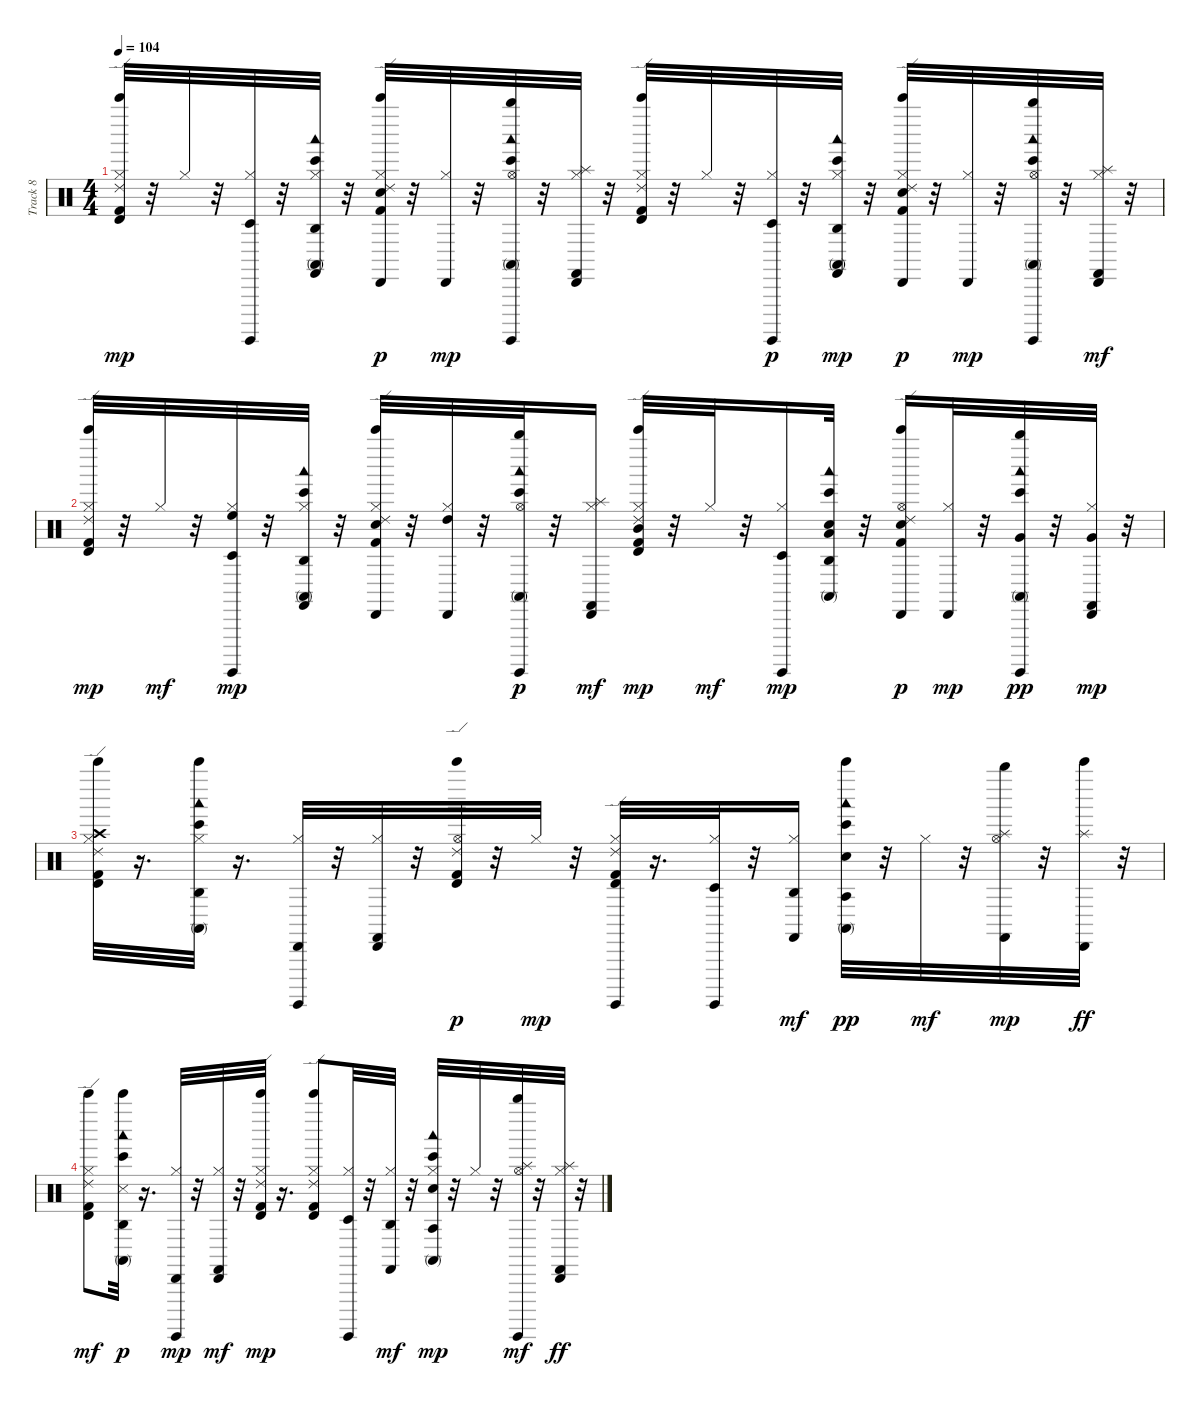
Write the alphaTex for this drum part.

\track ("Track 8" "Track 8") {instrument percussion}
\staff {score}
\articulation defaults
\ts (4 4)
\tempo 104
\clef neutral
\ks c
("Timbale high (hit)" "Ride (edge) 2" "Kick (hit) 2" "Bell Tree (hit)" "Hi-Hat (closed)").32{dy mp} r.32 "Hi-Hat (closed)".32 r.32 ("Timbale low (hit)" "Surdo (hit)" "Hi-Hat (closed)").32 r.32 ("Agogo high (hit)" "Bongo High (hit)" "Conga high (mute)" "Woodblock low (hit)" "Castanets (hit)" "Hi-Hat (closed)").32 r.32 ("Cabasa (hit)" "Ride (edge) 2" "Kick (hit) 2" "Electric Snare (hit)" "Bell Tree (hit)" "Hi-Hat (closed)").32{dy p} r.32 ("Cabasa (hit)" "Hi-Hat (closed)").32{dy mp} r.32 ("Whistle high (hit)" "Bongo High (hit)" "Conga high (mute)" "Woodblock low (hit)" "Surdo (hit)" "Hi-Hat (open)").32 r.32 ("Cabasa (hit)" "Castanets (hit)" "Hi-Hat (closed)" "Splash (hit)").32 r.32 ("Timbale high (hit)" "Ride (edge) 2" "Kick (hit) 2" "Bell Tree (hit)" "Hi-Hat (closed)").32 r.32 "Hi-Hat (closed)".32 r.32 ("Timbale low (hit)" "Surdo (hit)" "Hi-Hat (closed)").32{dy p} r.32 ("Agogo high (hit)" "Bongo High (hit)" "Conga high (mute)" "Woodblock low (hit)" "Castanets (hit)" "Hi-Hat (closed)").32{dy mp} r.32 ("Cabasa (hit)" "Ride (edge) 2" "Kick (hit) 2" "Electric Snare (hit)" "Bell Tree (hit)" "Hi-Hat (closed)").32{dy p} r.32 ("Cabasa (hit)" "Hi-Hat (closed)").32{dy mp} r.32 ("Whistle high (hit)" "Bongo High (hit)" "Conga high (mute)" "Woodblock low (hit)" "Surdo (hit)" "Hi-Hat (open)").32 r.32 ("Cabasa (hit)" "Castanets (hit)" "Hi-Hat (closed)" "Splash (hit)").32{dy mf} r.32 |
("Timbale high (hit)" "Ride (edge) 2" "Kick (hit) 2" "Bell Tree (hit)" "Hi-Hat (closed)").32{dy mp} r.32 "Hi-Hat (closed)".32{dy mf} r.32 ("Timbale low (hit)" "High Floor Tom (hit)" "Surdo (hit)" "Hi-Hat (closed)").32{dy mp} r.32 ("Agogo high (hit)" "Bongo High (hit)" "Conga high (mute)" "Woodblock low (hit)" "Castanets (hit)" "Hi-Hat (closed)").32 r.32 ("Cabasa (hit)" "Ride (edge) 2" "Kick (hit) 2" "Electric Snare (hit)" "Bell Tree (hit)" "Hi-Hat (closed)").32 r.32 ("Cabasa (hit)" "High Tom (hit)" "Hi-Hat (closed)").32 r.32 ("Whistle high (hit)" "Bongo High (hit)" "Conga high (mute)" "Woodblock low (hit)" "Surdo (hit)" "Hi-Hat (open)").32{dy p} r.32 ("Cabasa (hit)" "Castanets (hit)" "Hi-Hat (closed)" "Splash (hit)").16{dy mf} ("Timbale high (hit)" "Ride (edge) 2" "Kick (hit) 2" "Mid Tom (hit)" "Bell Tree (hit)" "Hi-Hat (closed)").32{dy mp} r.32 "Hi-Hat (closed)".32{dy mf} r.32 ("Timbale low (hit)" "Surdo (hit)" "Hi-Hat (closed)").16{dy mp} ("Agogo high (hit)" "Bongo High (hit)" "Conga high (mute)" "Electric Snare (hit)" "Woodblock low (hit)" "Low Tom (hit)").32 r.32 ("Cabasa (hit)" "Ride (edge) 2" "Kick (hit) 2" "Electric Snare (hit)" "Bell Tree (hit)" "Hi-Hat (open)").16{dy p} ("Cabasa (hit)" "Hi-Hat (closed)").32{dy mp} r.32 ("Whistle high (hit)" "Conga high (mute)" "Bongo High (hit)" "Woodblock low (hit)" "Very Low Tom (hit)" "Surdo (hit)").32{dy pp} r.32 ("Cabasa (hit)" "Very Low Tom (hit)" "Castanets (hit)" "Hi-Hat (closed)").32{dy mp} r.32 |
("Timbale high (hit)" "Ride (edge) 2" "Kick (hit) 2" "Crash high (hit)" "Bell Tree (hit)" "Hi-Hat (closed)").32 r.16{d} ("Agogo high (hit)" "Bongo High (hit)" "Conga high (mute)" "Woodblock low (hit)" "Bell Tree (hit)" "Hi-Hat (closed)").32 r.16{d} ("Cabasa (hit)" "Surdo (hit)" "Hi-Hat (closed)").32 r.32 ("Cabasa (hit)" "Castanets (hit)" "Hi-Hat (closed)").32 r.32 ("Timbale high (hit)" "Ride (edge) 2" "Kick (hit) 2" "Hi-Hat (open)" "Bell Tree (hit)").32{dy p} r.32 "Hi-Hat (closed)".32{dy mp} r.32 ("Timbale high (hit)" "Ride (edge) 2" "Kick (hit) 2" "Surdo (hit)" "Hi-Hat (closed)").32 r.16{d} ("Timbale low (hit)" "Surdo (hit)" "Hi-Hat (closed)").32 r.32 ("Agogo high (hit)" "Castanets (hit)" "Hi-Hat (closed)").16{dy mf} ("Agogo tow (hit)" "Bongo High (hit)" "Conga high (mute)" "Electric Snare (hit)" "Woodblock low (hit)" "Bell Tree (hit)").32{dy pp} r.32 "Hi-Hat (closed)".32{dy mf} r.32 ("Whistle high (hit)" "Castanets (hit)" "Hi-Hat (open)" "Splash (hit)").32{dy mp} r.32 ("Cabasa (hit)" "Bell Tree (hit)" "Splash (hit)").32{dy ff} r.32 |
("Timbale high (hit)" "Ride (edge) 2" "Kick (hit) 2" "Bell Tree (hit)" "Hi-Hat (closed)").8{dy mf} ("Agogo high (hit)" "Bongo High (hit)" "Conga high (mute)" "Snare (side stick) 3" "Woodblock low (hit)" "Bell Tree (hit)").32{dy p} r.16{d} ("Cabasa (hit)" "Surdo (hit)" "Hi-Hat (closed)").32{dy mp} r.32 ("Cabasa (hit)" "Castanets (hit)" "Hi-Hat (closed)").32{dy mf} r.32 ("Timbale high (hit)" "Ride (edge) 2" "Kick (hit) 2" "Bell Tree (hit)" "Hi-Hat (closed)").32{dy mp} r.16{d} ("Timbale high (hit)" "Ride (edge) 2" "Kick (hit) 2" "Bell Tree (hit)" "Hi-Hat (closed)").8 ("Timbale low (hit)" "Surdo (hit)" "Hi-Hat (closed)").32 r.32 ("Agogo high (hit)" "Castanets (hit)" "Hi-Hat (closed)").32{dy mf} r.32 ("Agogo tow (hit)" "Bongo High (hit)" "Conga high (mute)" "Electric Snare (hit)" "Woodblock low (hit)" "Hi-Hat (closed)").32{dy mp} r.32 "Hi-Hat (closed)".32 r.32 ("Whistle high (hit)" "Surdo (hit)" "Hi-Hat (open)" "Splash (hit)").32{dy mf} r.32 ("Cabasa (hit)" "Castanets (hit)" "Hi-Hat (closed)" "Splash (hit)").32{dy ff} r.32
